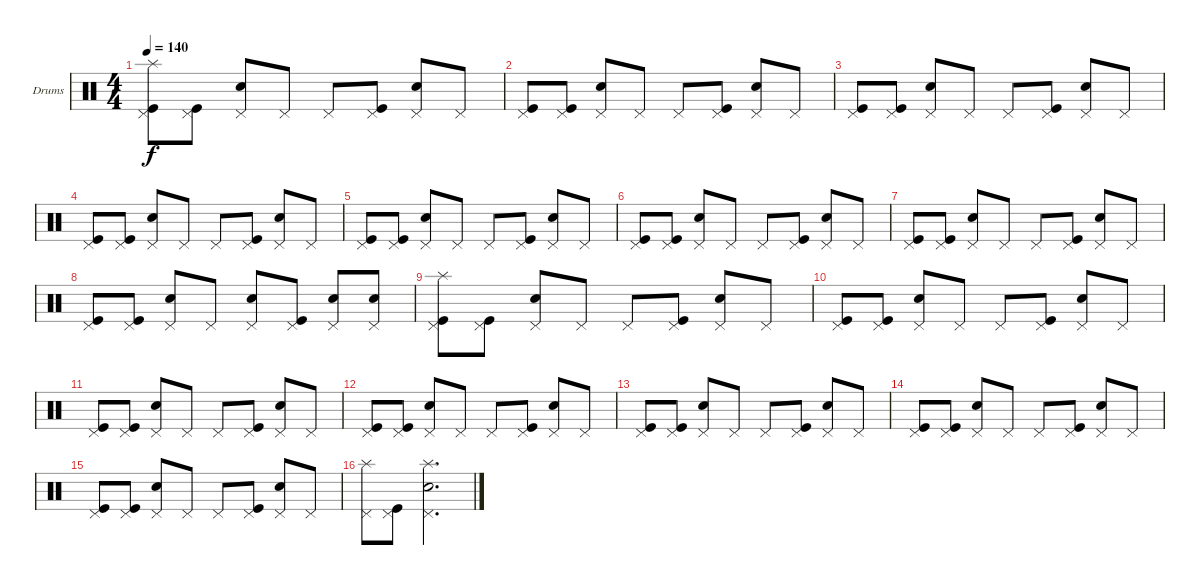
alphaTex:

\bracketExtendMode groupsimilarinstruments
\firstSystemTrackNameOrientation horizontal
\otherSystemsTrackNameOrientation horizontal
\track ("Drumkit" "Drums") {instrument percussion}
\staff {score}
\articulation defaults
\ts (4 4)
\tempo 140
\clef neutral
\ks aminor
("Splash (hit)" "Pedal Hi-Hat (hit)" "Kick (hit)").8{dy f} ("Pedal Hi-Hat (hit)" "Kick (hit)").8 ("Snare (hit) 2" "Pedal Hi-Hat (hit)").8 "Pedal Hi-Hat (hit)".8 "Pedal Hi-Hat (hit)".8 ("Pedal Hi-Hat (hit)" "Kick (hit)").8 ("Snare (hit) 2" "Pedal Hi-Hat (hit)").8 "Pedal Hi-Hat (hit)".8 |
\ks c
("Pedal Hi-Hat (hit)" "Kick (hit)").8 ("Pedal Hi-Hat (hit)" "Kick (hit)").8 ("Snare (hit) 2" "Pedal Hi-Hat (hit)").8 "Pedal Hi-Hat (hit)".8 "Pedal Hi-Hat (hit)".8 ("Pedal Hi-Hat (hit)" "Kick (hit)").8 ("Snare (hit) 2" "Pedal Hi-Hat (hit)").8 "Pedal Hi-Hat (hit)".8 |
("Pedal Hi-Hat (hit)" "Kick (hit)").8 ("Pedal Hi-Hat (hit)" "Kick (hit)").8 ("Snare (hit) 2" "Pedal Hi-Hat (hit)").8 "Pedal Hi-Hat (hit)".8 "Pedal Hi-Hat (hit)".8 ("Pedal Hi-Hat (hit)" "Kick (hit)").8 ("Snare (hit) 2" "Pedal Hi-Hat (hit)").8 "Pedal Hi-Hat (hit)".8 |
("Pedal Hi-Hat (hit)" "Kick (hit)").8 ("Pedal Hi-Hat (hit)" "Kick (hit)").8 ("Snare (hit) 2" "Pedal Hi-Hat (hit)").8 "Pedal Hi-Hat (hit)".8 "Pedal Hi-Hat (hit)".8 ("Pedal Hi-Hat (hit)" "Kick (hit)").8 ("Snare (hit) 2" "Pedal Hi-Hat (hit)").8 "Pedal Hi-Hat (hit)".8 |
("Pedal Hi-Hat (hit)" "Kick (hit)").8 ("Pedal Hi-Hat (hit)" "Kick (hit)").8 ("Snare (hit) 2" "Pedal Hi-Hat (hit)").8 "Pedal Hi-Hat (hit)".8 "Pedal Hi-Hat (hit)".8 ("Pedal Hi-Hat (hit)" "Kick (hit)").8 ("Snare (hit) 2" "Pedal Hi-Hat (hit)").8 "Pedal Hi-Hat (hit)".8 |
("Pedal Hi-Hat (hit)" "Kick (hit)").8 ("Pedal Hi-Hat (hit)" "Kick (hit)").8 ("Snare (hit) 2" "Pedal Hi-Hat (hit)").8 "Pedal Hi-Hat (hit)".8 "Pedal Hi-Hat (hit)".8 ("Pedal Hi-Hat (hit)" "Kick (hit)").8 ("Snare (hit) 2" "Pedal Hi-Hat (hit)").8 "Pedal Hi-Hat (hit)".8 |
("Pedal Hi-Hat (hit)" "Kick (hit)").8 ("Pedal Hi-Hat (hit)" "Kick (hit)").8 ("Snare (hit) 2" "Pedal Hi-Hat (hit)").8 "Pedal Hi-Hat (hit)".8 "Pedal Hi-Hat (hit)".8 ("Pedal Hi-Hat (hit)" "Kick (hit)").8 ("Snare (hit) 2" "Pedal Hi-Hat (hit)").8 "Pedal Hi-Hat (hit)".8 |
("Pedal Hi-Hat (hit)" "Kick (hit)").8 ("Pedal Hi-Hat (hit)" "Kick (hit)").8 ("Snare (hit) 2" "Pedal Hi-Hat (hit)").8 "Pedal Hi-Hat (hit)".8 ("Snare (hit) 2" "Pedal Hi-Hat (hit)").8 ("Pedal Hi-Hat (hit)" "Kick (hit)").8 ("Snare (hit) 2" "Pedal Hi-Hat (hit)").8 ("Snare (hit) 2" "Pedal Hi-Hat (hit)").8 |
("Splash (hit)" "Pedal Hi-Hat (hit)" "Kick (hit)").8 ("Pedal Hi-Hat (hit)" "Kick (hit)").8 ("Snare (hit) 2" "Pedal Hi-Hat (hit)").8 "Pedal Hi-Hat (hit)".8 "Pedal Hi-Hat (hit)".8 ("Pedal Hi-Hat (hit)" "Kick (hit)").8 ("Snare (hit) 2" "Pedal Hi-Hat (hit)").8 "Pedal Hi-Hat (hit)".8 |
("Pedal Hi-Hat (hit)" "Kick (hit)").8 ("Pedal Hi-Hat (hit)" "Kick (hit)").8 ("Snare (hit) 2" "Pedal Hi-Hat (hit)").8 "Pedal Hi-Hat (hit)".8 "Pedal Hi-Hat (hit)".8 ("Pedal Hi-Hat (hit)" "Kick (hit)").8 ("Snare (hit) 2" "Pedal Hi-Hat (hit)").8 "Pedal Hi-Hat (hit)".8 |
("Pedal Hi-Hat (hit)" "Kick (hit)").8 ("Pedal Hi-Hat (hit)" "Kick (hit)").8 ("Snare (hit) 2" "Pedal Hi-Hat (hit)").8 "Pedal Hi-Hat (hit)".8 "Pedal Hi-Hat (hit)".8 ("Pedal Hi-Hat (hit)" "Kick (hit)").8 ("Snare (hit) 2" "Pedal Hi-Hat (hit)").8 "Pedal Hi-Hat (hit)".8 |
("Pedal Hi-Hat (hit)" "Kick (hit)").8 ("Pedal Hi-Hat (hit)" "Kick (hit)").8 ("Snare (hit) 2" "Pedal Hi-Hat (hit)").8 "Pedal Hi-Hat (hit)".8 "Pedal Hi-Hat (hit)".8 ("Pedal Hi-Hat (hit)" "Kick (hit)").8 ("Snare (hit) 2" "Pedal Hi-Hat (hit)").8 "Pedal Hi-Hat (hit)".8 |
("Pedal Hi-Hat (hit)" "Kick (hit)").8 ("Pedal Hi-Hat (hit)" "Kick (hit)").8 ("Snare (hit) 2" "Pedal Hi-Hat (hit)").8 "Pedal Hi-Hat (hit)".8 "Pedal Hi-Hat (hit)".8 ("Pedal Hi-Hat (hit)" "Kick (hit)").8 ("Snare (hit) 2" "Pedal Hi-Hat (hit)").8 "Pedal Hi-Hat (hit)".8 |
("Pedal Hi-Hat (hit)" "Kick (hit)").8 ("Pedal Hi-Hat (hit)" "Kick (hit)").8 ("Snare (hit) 2" "Pedal Hi-Hat (hit)").8 "Pedal Hi-Hat (hit)".8 "Pedal Hi-Hat (hit)".8 ("Pedal Hi-Hat (hit)" "Kick (hit)").8 ("Snare (hit) 2" "Pedal Hi-Hat (hit)").8 "Pedal Hi-Hat (hit)".8 |
("Pedal Hi-Hat (hit)" "Kick (hit)").8 ("Pedal Hi-Hat (hit)" "Kick (hit)").8 ("Snare (hit) 2" "Pedal Hi-Hat (hit)").8 "Pedal Hi-Hat (hit)".8 "Pedal Hi-Hat (hit)".8 ("Pedal Hi-Hat (hit)" "Kick (hit)").8 ("Snare (hit) 2" "Pedal Hi-Hat (hit)").8 "Pedal Hi-Hat (hit)".8 |
("Splash (hit)" "Pedal Hi-Hat (hit)").8 ("Pedal Hi-Hat (hit)" "Kick (hit)").8 ("Splash (hit)" "Snare (hit) 2" "Pedal Hi-Hat (hit)").2{d}
